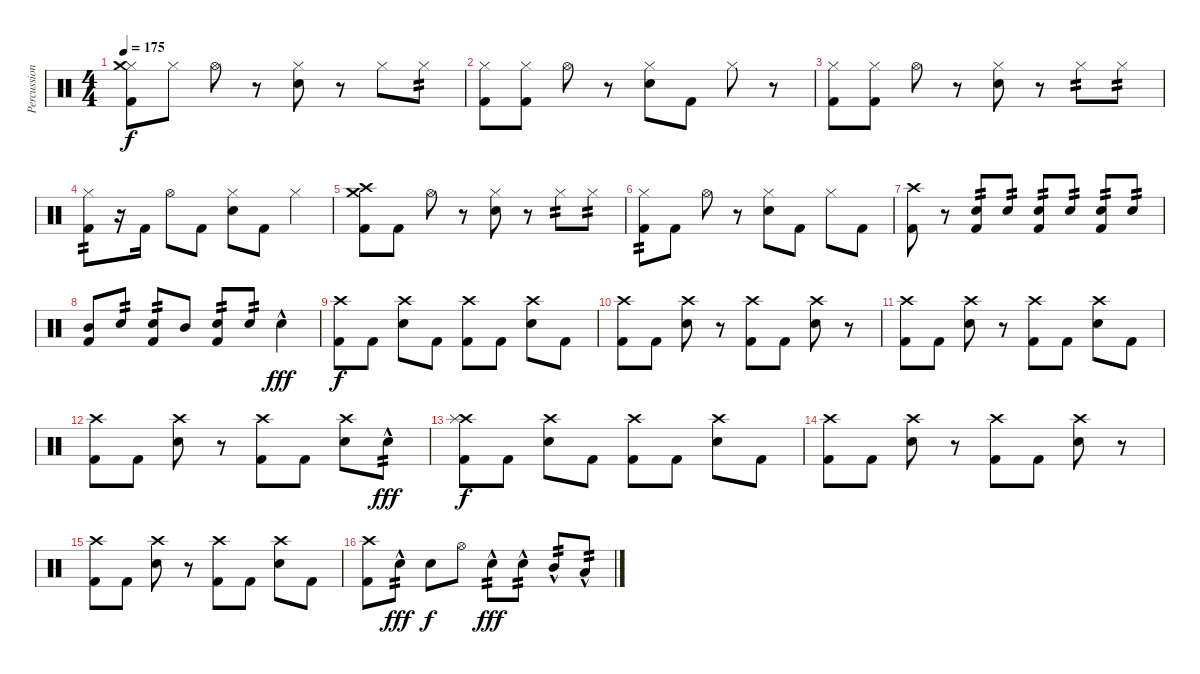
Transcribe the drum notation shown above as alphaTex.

\track ("Percussion" "Percussion") {instrument percussion bank 177}
\staff {score}
\articulation defaults
\ts (4 4)
\tempo 175
\clef neutral
\ks c
("Hi-Hat (closed)" "Crash medium (hit)" "Kick (hit) 2").8{dy f} "Hi-Hat (closed)".8 "Hi-Hat (open)".8 r.8 ("Hi-Hat (closed)" "Electric Snare (hit)").8 r.8 "Hi-Hat (closed)".8 "Hi-Hat (closed)".8{tp 2} |
("Hi-Hat (closed)" "Kick (hit) 2").8 ("Hi-Hat (closed)" "Kick (hit) 2").8 "Hi-Hat (open)".8 r.8 ("Hi-Hat (closed)" "Electric Snare (hit)").8 "Kick (hit) 2".8 "Hi-Hat (closed)".8 r.8 |
("Hi-Hat (closed)" "Kick (hit) 2").8 ("Hi-Hat (closed)" "Kick (hit) 2").8 "Hi-Hat (open)".8 r.8 ("Hi-Hat (closed)" "Electric Snare (hit)").8 r.8 "Hi-Hat (closed)".8{tp 2} "Hi-Hat (closed)".8{tp 2} |
("Hi-Hat (closed)" "Kick (hit) 2").8{tp 2} r.16 "Kick (hit) 2".16 "Hi-Hat (open)".8 "Kick (hit) 2".8 ("Hi-Hat (closed)" "Electric Snare (hit)").8 "Kick (hit) 2".8 "Hi-Hat (closed)".4 |
("Crash high (hit)" "Crash medium (hit)" "Kick (hit) 2").8 "Kick (hit) 2".8 "Hi-Hat (open)".8 r.8 ("Hi-Hat (closed)" "Electric Snare (hit)").8 r.8 "Hi-Hat (closed)".8{tp 2} "Hi-Hat (closed)".8{tp 2} |
("Hi-Hat (closed)" "Kick (hit) 2").8{tp 2} "Kick (hit) 2".8 "Hi-Hat (open)".8 r.8 ("Hi-Hat (closed)" "Electric Snare (hit)").8 "Kick (hit) 2".8 "Hi-Hat (closed)".8 "Kick (hit) 2".8 |
("Crash high (hit)" "Kick (hit) 2").8 r.8 ("Electric Snare (hit)" "Kick (hit) 2").8{tp 2} "Electric Snare (hit)".8{tp 2} ("Electric Snare (hit)" "Kick (hit) 2").8{tp 2} "Electric Snare (hit)".8{tp 2} ("Electric Snare (hit)" "Kick (hit) 2").8{tp 2} "Electric Snare (hit)".8{tp 2} |
("Mid Tom (hit)" "Kick (hit) 2").8 "Electric Snare (hit)".8{tp 2} ("Electric Snare (hit)" "Kick (hit) 2").8{tp 2} "Mid Tom (hit)".8 ("Electric Snare (hit)" "Kick (hit) 2").8{tp 2} "Electric Snare (hit)".8{tp 2} "Electric Snare (hit)"{hac}.4{dy fff} |
("Crash high (hit)" "Kick (hit) 2").8{dy f} "Kick (hit) 2".8 ("Crash high (hit)" "Electric Snare (hit)").8 "Kick (hit) 2".8 ("Crash high (hit)" "Kick (hit) 2").8 "Kick (hit) 2".8 ("Crash high (hit)" "Electric Snare (hit)").8 "Kick (hit) 2".8 |
("Crash high (hit)" "Kick (hit) 2").8 "Kick (hit) 2".8 ("Crash high (hit)" "Electric Snare (hit)").8 r.8 ("Crash high (hit)" "Kick (hit) 2").8 "Kick (hit) 2".8 ("Crash high (hit)" "Electric Snare (hit)").8 r.8 |
("Crash high (hit)" "Kick (hit) 2").8 "Kick (hit) 2".8 ("Crash high (hit)" "Electric Snare (hit)").8 r.8 ("Crash high (hit)" "Kick (hit) 2").8 "Kick (hit) 2".8 ("Crash high (hit)" "Electric Snare (hit)").8 "Kick (hit) 2".8 |
("Crash high (hit)" "Kick (hit) 2").8 "Kick (hit) 2".8 ("Crash high (hit)" "Electric Snare (hit)").8 r.8 ("Crash high (hit)" "Kick (hit) 2").8 "Kick (hit) 2".8 ("Crash high (hit)" "Electric Snare (hit)").8 "Electric Snare (hit)"{hac}.8{tp 2 dy fff} |
("Crash high (hit)" "Splash (hit)" "Kick (hit) 2").8{dy f} "Kick (hit) 2".8 ("Crash high (hit)" "Electric Snare (hit)").8 "Kick (hit) 2".8 ("Crash high (hit)" "Kick (hit) 2").8 "Kick (hit) 2".8 ("Crash high (hit)" "Electric Snare (hit)").8 "Kick (hit) 2".8 |
("Crash high (hit)" "Kick (hit) 2").8 "Kick (hit) 2".8 ("Crash high (hit)" "Electric Snare (hit)").8 r.8 ("Crash high (hit)" "Kick (hit) 2").8 "Kick (hit) 2".8 ("Crash high (hit)" "Electric Snare (hit)").8 r.8 |
("Crash high (hit)" "Kick (hit) 2").8 "Kick (hit) 2".8 ("Crash high (hit)" "Electric Snare (hit)").8 r.8 ("Crash high (hit)" "Kick (hit) 2").8 "Kick (hit) 2".8 ("Crash high (hit)" "Electric Snare (hit)").8 "Kick (hit) 2".8 |
("Crash high (hit)" "Kick (hit) 2").8 "Electric Snare (hit)"{hac}.8{tp 2 dy fff} "Electric Snare (hit)".8{dy f} "Hi-Hat (open)".8 "Electric Snare (hit)"{hac}.8{tp 2 dy fff} "Electric Snare (hit)"{hac}.8{tp 2} "Mid Tom (hit)"{hac}.8{tp 2} "Low Tom (hit)"{hac}.8{tp 2}
